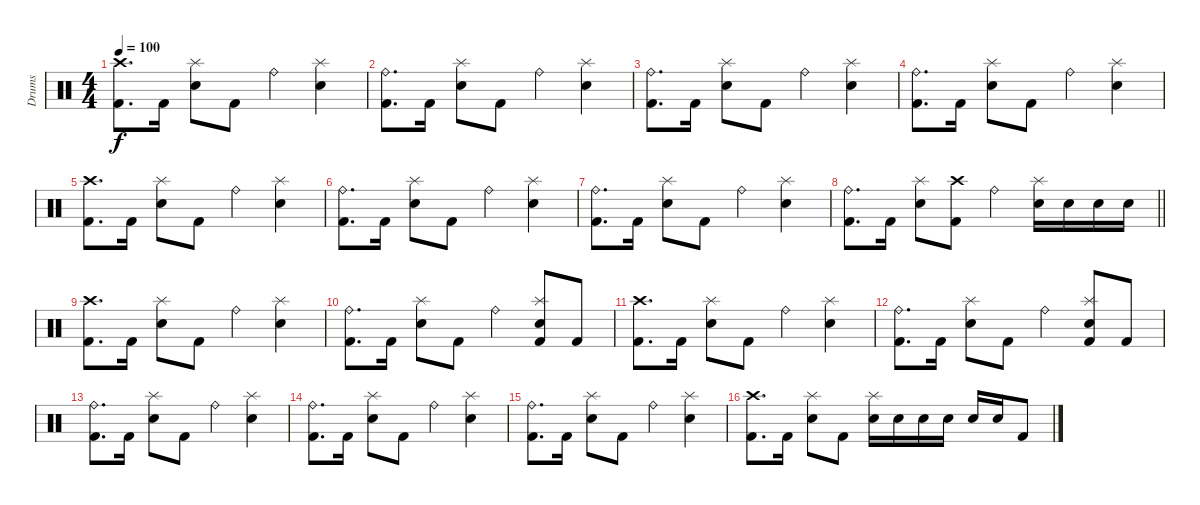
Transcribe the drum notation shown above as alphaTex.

\track ("Drums" "Drums") {instrument percussion}
\staff {score}
\articulation defaults
\ts (4 4)
\tempo 100
\clef neutral
\ks c
("Crash high (hit)" "Kick (hit) 2").8{d dy f} "Kick (hit) 2".16 ("Splash (hit)" "Electric Snare (hit)").8 "Kick (hit) 2".8 "Ride (bell)".4 ("Splash (hit)" "Electric Snare (hit)").4 |
("Ride (bell)" "Kick (hit) 2").8{d} "Kick (hit) 2".16 ("Splash (hit)" "Electric Snare (hit)").8 "Kick (hit) 2".8 "Ride (bell)".4 ("Splash (hit)" "Electric Snare (hit)").4 |
("Ride (bell)" "Kick (hit) 2").8{d} "Kick (hit) 2".16 ("Splash (hit)" "Electric Snare (hit)").8 "Kick (hit) 2".8 "Ride (bell)".4 ("Splash (hit)" "Electric Snare (hit)").4 |
("Ride (bell)" "Kick (hit) 2").8{d} "Kick (hit) 2".16 ("Splash (hit)" "Electric Snare (hit)").8 "Kick (hit) 2".8 "Ride (bell)".4 ("Splash (hit)" "Electric Snare (hit)").4 |
("Crash high (hit)" "Kick (hit) 2").8{d} "Kick (hit) 2".16 ("Splash (hit)" "Electric Snare (hit)").8 "Kick (hit) 2".8 "Ride (bell)".4 ("Splash (hit)" "Electric Snare (hit)").4 |
("Ride (bell)" "Kick (hit) 2").8{d} "Kick (hit) 2".16 ("Splash (hit)" "Electric Snare (hit)").8 "Kick (hit) 2".8 "Ride (bell)".4 ("Splash (hit)" "Electric Snare (hit)").4 |
("Ride (bell)" "Kick (hit) 2").8{d} "Kick (hit) 2".16 ("Splash (hit)" "Electric Snare (hit)").8 "Kick (hit) 2".8 "Ride (bell)".4 ("Splash (hit)" "Electric Snare (hit)").4 |
\barLineRight lightlight
("Ride (bell)" "Kick (hit) 2").8{d} "Kick (hit) 2".16 ("Splash (hit)" "Electric Snare (hit)").8 ("Crash high (hit)" "Kick (hit) 2").8 "Ride (bell)".4 ("Splash (hit)" "Electric Snare (hit)").16 "Electric Snare (hit)".16 "Electric Snare (hit)".16 "Electric Snare (hit)".16 |
("Crash high (hit)" "Kick (hit) 2").8{d} "Kick (hit) 2".16 ("Splash (hit)" "Electric Snare (hit)").8 "Kick (hit) 2".8 "Ride (bell)".4 ("Splash (hit)" "Electric Snare (hit)").4 |
("Ride (bell)" "Kick (hit) 2").8{d} "Kick (hit) 2".16 ("Splash (hit)" "Electric Snare (hit)").8 "Kick (hit) 2".8 "Ride (bell)".4 ("Splash (hit)" "Electric Snare (hit)" "Kick (hit) 2").8 "Kick (hit) 2".8 |
("Crash high (hit)" "Kick (hit) 2").8{d} "Kick (hit) 2".16 ("Splash (hit)" "Electric Snare (hit)").8 "Kick (hit) 2".8 "Ride (bell)".4 ("Splash (hit)" "Electric Snare (hit)").4 |
("Ride (bell)" "Kick (hit) 2").8{d} "Kick (hit) 2".16 ("Splash (hit)" "Electric Snare (hit)").8 "Kick (hit) 2".8 "Ride (bell)".4 ("Splash (hit)" "Electric Snare (hit)" "Kick (hit) 2").8 "Kick (hit) 2".8 |
("Ride (bell)" "Kick (hit) 2").8{d} "Kick (hit) 2".16 ("Splash (hit)" "Electric Snare (hit)").8 "Kick (hit) 2".8 "Ride (bell)".4 ("Splash (hit)" "Electric Snare (hit)").4 |
("Ride (bell)" "Kick (hit) 2").8{d} "Kick (hit) 2".16 ("Splash (hit)" "Electric Snare (hit)").8 "Kick (hit) 2".8 "Ride (bell)".4 ("Splash (hit)" "Electric Snare (hit)").4 |
("Ride (bell)" "Kick (hit) 2").8{d} "Kick (hit) 2".16 ("Splash (hit)" "Electric Snare (hit)").8 "Kick (hit) 2".8 "Ride (bell)".4 ("Splash (hit)" "Electric Snare (hit)").4 |
("Crash high (hit)" "Kick (hit) 2").8{d} "Kick (hit) 2".16 ("Splash (hit)" "Electric Snare (hit)").8 "Kick (hit) 2".8 ("Splash (hit)" "Electric Snare (hit)").16 "Electric Snare (hit)".16 "Electric Snare (hit)".16 "Electric Snare (hit)".16 "Electric Snare (hit)".16 "Electric Snare (hit)".16 "Kick (hit) 2".8
